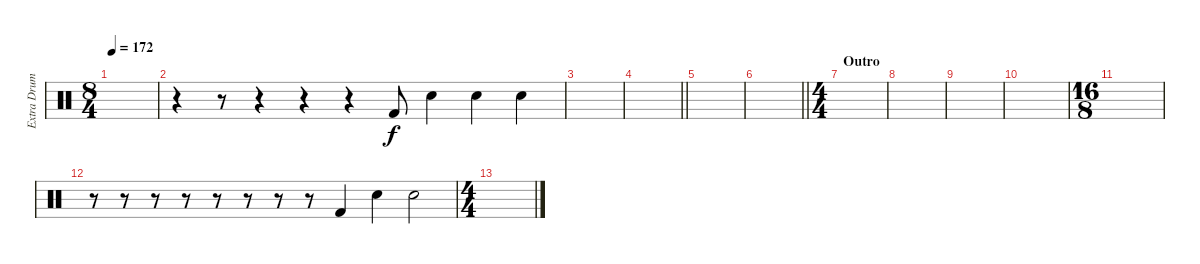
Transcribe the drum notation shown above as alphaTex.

\track ("Extra Drums" "Extra Drum") {instrument percussion}
\staff {score}
\articulation defaults
\ts (8 4)
\tempo 172
\clef neutral
\ks c
|
r.4 r.8 r.4 r.4 r.4 "Kick (hit) 2".8 "Snare (hit) 2".4 "Electric Snare (hit)".4 "Snare (hit) 2".4 |
|
\barLineRight lightlight
|
|
\barLineRight lightlight
|
\ts (4 4)
\section ("" "Outro")
|
|
|
|
\ts (16 8)
|
r.8 r.8 r.8 r.8 r.8 r.8 r.8 r.8 "Kick (hit) 2".4 "Electric Snare (hit)".4 "Snare (hit) 2".2 |
\ts (4 4)
